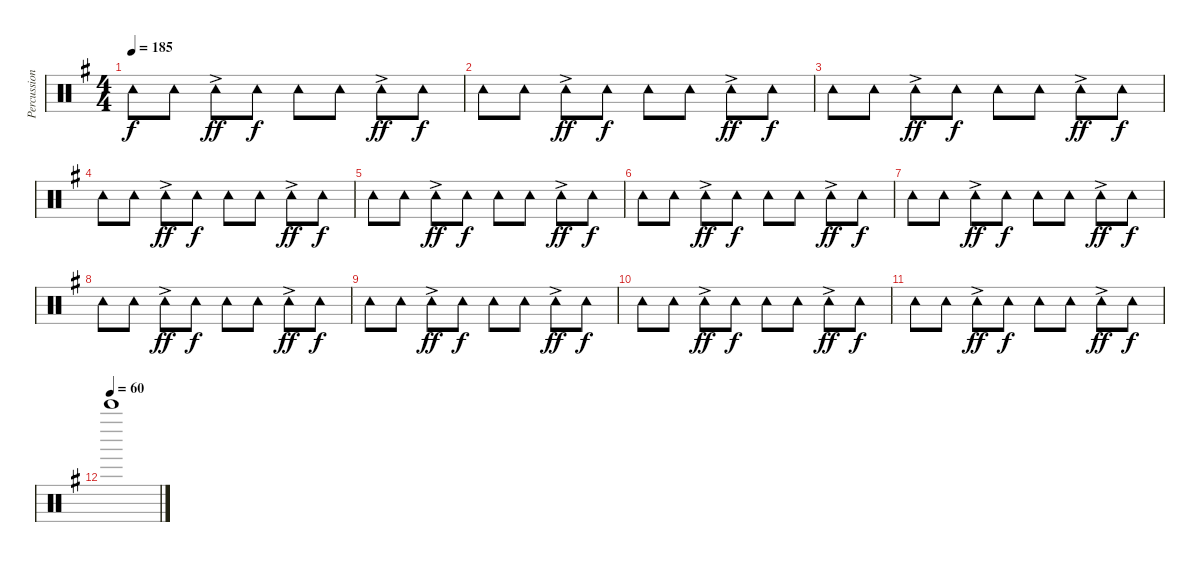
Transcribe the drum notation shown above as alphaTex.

\track ("Percussion I" "Percussion") {instrument percussion}
\staff {score}
\articulation defaults
\ts (4 4)
\tempo 185
\clef neutral
\ks g "Tambourine (hit)".8{dy f} "Tambourine (hit)".8 "Tambourine (hit)"{ac}.8{dy ff} "Tambourine (hit)".8{dy f} "Tambourine (hit)".8 "Tambourine (hit)".8 "Tambourine (hit)"{ac}.8{dy ff} "Tambourine (hit)".8{dy f}
|
"Tambourine (hit)".8 "Tambourine (hit)".8 "Tambourine (hit)"{ac}.8{dy ff} "Tambourine (hit)".8{dy f} "Tambourine (hit)".8 "Tambourine (hit)".8 "Tambourine (hit)"{ac}.8{dy ff} "Tambourine (hit)".8{dy f} |
"Tambourine (hit)".8 "Tambourine (hit)".8 "Tambourine (hit)"{ac}.8{dy ff} "Tambourine (hit)".8{dy f} "Tambourine (hit)".8 "Tambourine (hit)".8 "Tambourine (hit)"{ac}.8{dy ff} "Tambourine (hit)".8{dy f} |
"Tambourine (hit)".8 "Tambourine (hit)".8 "Tambourine (hit)"{ac}.8{dy ff} "Tambourine (hit)".8{dy f} "Tambourine (hit)".8 "Tambourine (hit)".8 "Tambourine (hit)"{ac}.8{dy ff} "Tambourine (hit)".8{dy f} |
"Tambourine (hit)".8 "Tambourine (hit)".8 "Tambourine (hit)"{ac}.8{dy ff} "Tambourine (hit)".8{dy f} "Tambourine (hit)".8 "Tambourine (hit)".8 "Tambourine (hit)"{ac}.8{dy ff} "Tambourine (hit)".8{dy f} |
"Tambourine (hit)".8 "Tambourine (hit)".8 "Tambourine (hit)"{ac}.8{dy ff} "Tambourine (hit)".8{dy f} "Tambourine (hit)".8 "Tambourine (hit)".8 "Tambourine (hit)"{ac}.8{dy ff} "Tambourine (hit)".8{dy f} |
"Tambourine (hit)".8 "Tambourine (hit)".8 "Tambourine (hit)"{ac}.8{dy ff} "Tambourine (hit)".8{dy f} "Tambourine (hit)".8 "Tambourine (hit)".8 "Tambourine (hit)"{ac}.8{dy ff} "Tambourine (hit)".8{dy f} |
"Tambourine (hit)".8 "Tambourine (hit)".8 "Tambourine (hit)"{ac}.8{dy ff} "Tambourine (hit)".8{dy f} "Tambourine (hit)".8 "Tambourine (hit)".8 "Tambourine (hit)"{ac}.8{dy ff} "Tambourine (hit)".8{dy f} |
"Tambourine (hit)".8 "Tambourine (hit)".8 "Tambourine (hit)"{ac}.8{dy ff} "Tambourine (hit)".8{dy f} "Tambourine (hit)".8 "Tambourine (hit)".8 "Tambourine (hit)"{ac}.8{dy ff} "Tambourine (hit)".8{dy f} |
"Tambourine (hit)".8 "Tambourine (hit)".8 "Tambourine (hit)"{ac}.8{dy ff} "Tambourine (hit)".8{dy f} "Tambourine (hit)".8 "Tambourine (hit)".8 "Tambourine (hit)"{ac}.8{dy ff} "Tambourine (hit)".8{dy f} |
"Tambourine (hit)".8 "Tambourine (hit)".8 "Tambourine (hit)"{ac}.8{dy ff} "Tambourine (hit)".8{dy f} "Tambourine (hit)".8 "Tambourine (hit)".8 "Tambourine (hit)"{ac}.8{dy ff} "Tambourine (hit)".8{dy f} |
\tempo (60)
"Bell Tree (hit)".1
